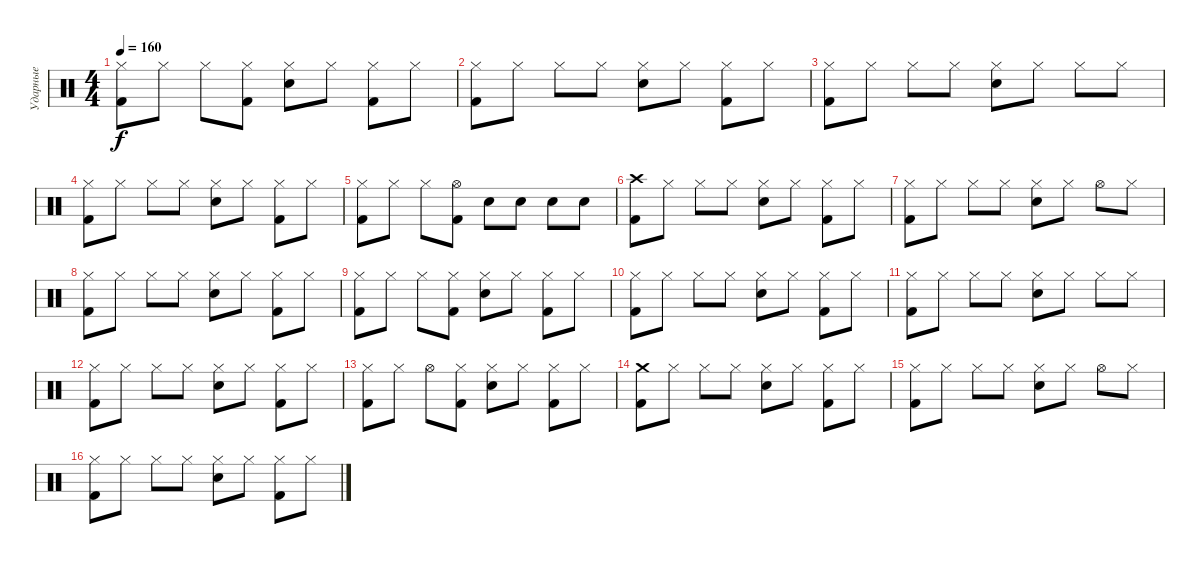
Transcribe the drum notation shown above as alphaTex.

\track ("Ударные" "Ударные") {instrument percussion}
\staff {score}
\articulation defaults
\ts (4 4)
\tempo 160
\clef neutral
\ks c
("Kick (hit) 2" "Hi-Hat (closed)").8{dy f} "Hi-Hat (closed)".8 "Hi-Hat (closed)".8 ("Kick (hit) 2" "Hi-Hat (closed)").8 ("Electric Snare (hit)" "Hi-Hat (closed)").8 "Hi-Hat (closed)".8 ("Kick (hit) 2" "Hi-Hat (closed)").8 "Hi-Hat (closed)".8 |
("Kick (hit) 2" "Hi-Hat (closed)").8 "Hi-Hat (closed)".8 "Hi-Hat (closed)".8 "Hi-Hat (closed)".8 ("Electric Snare (hit)" "Hi-Hat (closed)").8 "Hi-Hat (closed)".8 ("Kick (hit) 2" "Hi-Hat (closed)").8 "Hi-Hat (closed)".8 |
("Kick (hit) 2" "Hi-Hat (closed)").8 "Hi-Hat (closed)".8 "Hi-Hat (closed)".8 "Hi-Hat (closed)".8 ("Electric Snare (hit)" "Hi-Hat (closed)").8 "Hi-Hat (closed)".8 "Hi-Hat (closed)".8 "Hi-Hat (closed)".8 |
("Kick (hit) 2" "Hi-Hat (closed)").8 "Hi-Hat (closed)".8 "Hi-Hat (closed)".8 "Hi-Hat (closed)".8 ("Electric Snare (hit)" "Hi-Hat (closed)").8 "Hi-Hat (closed)".8 ("Kick (hit) 2" "Hi-Hat (closed)").8 "Hi-Hat (closed)".8 |
("Kick (hit) 2" "Hi-Hat (closed)").8 "Hi-Hat (closed)".8 "Hi-Hat (closed)".8 ("Kick (hit) 2" "Hi-Hat (open)").8 "Electric Snare (hit)".8 "Electric Snare (hit)".8 "Electric Snare (hit)".8 "Electric Snare (hit)".8 |
("Kick (hit) 2" "Crash high (hit)").8 "Hi-Hat (closed)".8 "Hi-Hat (closed)".8 "Hi-Hat (closed)".8 ("Electric Snare (hit)" "Hi-Hat (closed)").8 "Hi-Hat (closed)".8 ("Kick (hit) 2" "Hi-Hat (closed)").8 "Hi-Hat (closed)".8 |
("Kick (hit) 2" "Hi-Hat (closed)").8 "Hi-Hat (closed)".8 "Hi-Hat (closed)".8 "Hi-Hat (closed)".8 ("Electric Snare (hit)" "Hi-Hat (closed)").8 "Hi-Hat (closed)".8 "Hi-Hat (open)".8 "Hi-Hat (closed)".8 |
("Kick (hit) 2" "Hi-Hat (closed)").8 "Hi-Hat (closed)".8 "Hi-Hat (closed)".8 "Hi-Hat (closed)".8 ("Electric Snare (hit)" "Hi-Hat (closed)").8 "Hi-Hat (closed)".8 ("Kick (hit) 2" "Hi-Hat (closed)").8 "Hi-Hat (closed)".8 |
("Kick (hit) 2" "Hi-Hat (closed)").8 "Hi-Hat (closed)".8 "Hi-Hat (closed)".8 ("Kick (hit) 2" "Hi-Hat (closed)").8 ("Electric Snare (hit)" "Hi-Hat (closed)").8 "Hi-Hat (closed)".8 ("Kick (hit) 2" "Hi-Hat (closed)").8 "Hi-Hat (closed)".8 |
("Kick (hit) 2" "Hi-Hat (closed)").8 "Hi-Hat (closed)".8 "Hi-Hat (closed)".8 "Hi-Hat (closed)".8 ("Electric Snare (hit)" "Hi-Hat (closed)").8 "Hi-Hat (closed)".8 ("Kick (hit) 2" "Hi-Hat (closed)").8 "Hi-Hat (closed)".8 |
("Kick (hit) 2" "Hi-Hat (closed)").8 "Hi-Hat (closed)".8 "Hi-Hat (closed)".8 "Hi-Hat (closed)".8 ("Electric Snare (hit)" "Hi-Hat (closed)").8 "Hi-Hat (closed)".8 "Hi-Hat (closed)".8 "Hi-Hat (closed)".8 |
("Kick (hit) 2" "Hi-Hat (closed)").8 "Hi-Hat (closed)".8 "Hi-Hat (closed)".8 "Hi-Hat (closed)".8 ("Electric Snare (hit)" "Hi-Hat (closed)").8 "Hi-Hat (closed)".8 ("Kick (hit) 2" "Hi-Hat (closed)").8 "Hi-Hat (closed)".8 |
("Kick (hit) 2" "Hi-Hat (closed)").8 "Hi-Hat (closed)".8 "Hi-Hat (open)".8 ("Kick (hit) 2" "Hi-Hat (closed)").8 ("Electric Snare (hit)" "Hi-Hat (closed)").8 "Hi-Hat (closed)".8 ("Kick (hit) 2" "Hi-Hat (closed)").8 "Hi-Hat (closed)".8 |
("Kick (hit) 2" "Crash medium (hit)").8 "Hi-Hat (closed)".8 "Hi-Hat (closed)".8 "Hi-Hat (closed)".8 ("Electric Snare (hit)" "Hi-Hat (closed)").8 "Hi-Hat (closed)".8 ("Kick (hit) 2" "Hi-Hat (closed)").8 "Hi-Hat (closed)".8 |
("Kick (hit) 2" "Hi-Hat (closed)").8 "Hi-Hat (closed)".8 "Hi-Hat (closed)".8 "Hi-Hat (closed)".8 ("Electric Snare (hit)" "Hi-Hat (closed)").8 "Hi-Hat (closed)".8 "Hi-Hat (open)".8 "Hi-Hat (closed)".8 |
("Kick (hit) 2" "Hi-Hat (closed)").8 "Hi-Hat (closed)".8 "Hi-Hat (closed)".8 "Hi-Hat (closed)".8 ("Electric Snare (hit)" "Hi-Hat (closed)").8 "Hi-Hat (closed)".8 ("Kick (hit) 2" "Hi-Hat (closed)").8 "Hi-Hat (closed)".8
